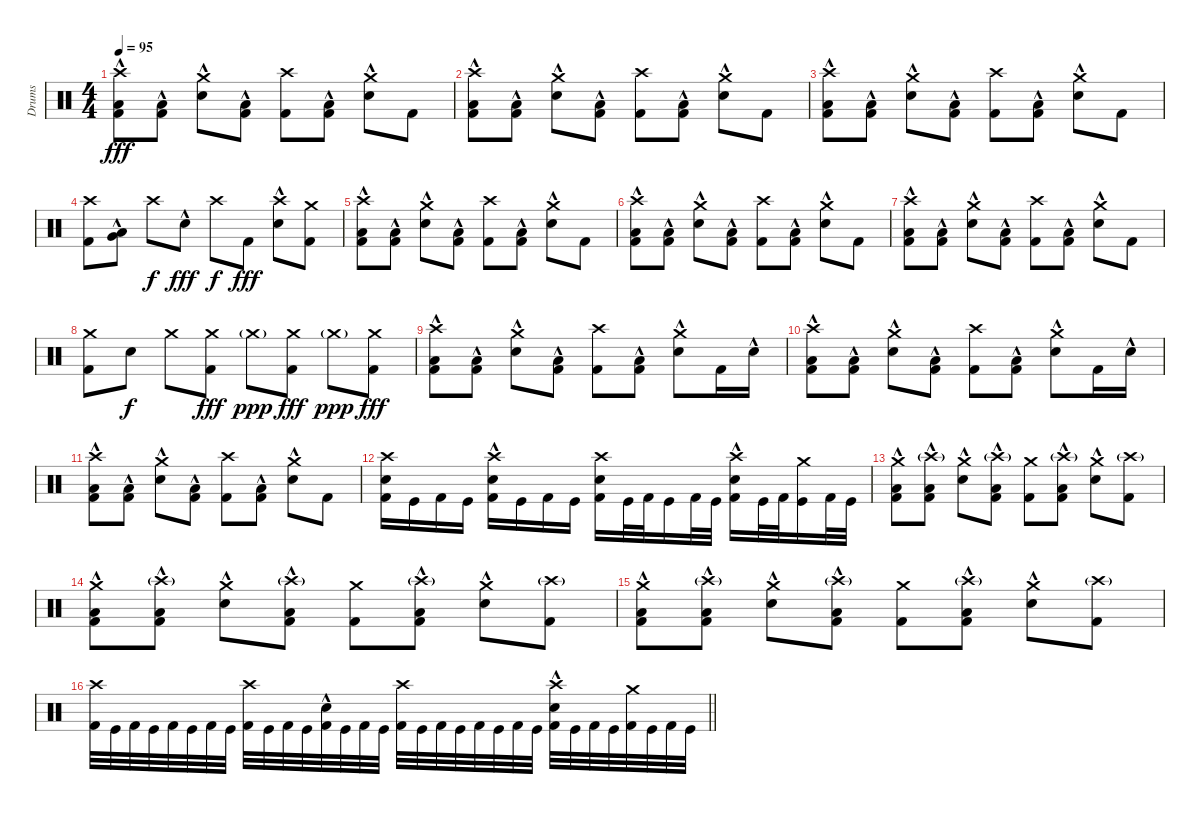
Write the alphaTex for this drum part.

\track ("Drums" "Drums") {instrument percussion}
\staff {score}
\articulation defaults
\ts (4 4)
\tempo 95
\clef neutral
\ks c
("Crash high (hit)" "Low Floor Tom (hit)"{hac} "Kick (hit) 2").8{dy fff} ("Low Floor Tom (hit)"{hac} "Kick (hit) 2").8 ("Crash medium (hit)" "Electric Snare (hit)"{hac}).8 ("Low Floor Tom (hit)"{hac} "Kick (hit) 2").8 ("Crash high (hit)" "Kick (hit) 2").8 ("Low Floor Tom (hit)"{hac} "Kick (hit) 2").8 ("Crash medium (hit)" "Electric Snare (hit)"{hac}).8 "Kick (hit) 2".8 |
("Crash high (hit)" "Low Floor Tom (hit)"{hac} "Kick (hit) 2").8 ("Low Floor Tom (hit)"{hac} "Kick (hit) 2").8 ("Crash medium (hit)" "Electric Snare (hit)"{hac}).8 ("Low Floor Tom (hit)"{hac} "Kick (hit) 2").8 ("Crash high (hit)" "Kick (hit) 2").8 ("Low Floor Tom (hit)"{hac} "Kick (hit) 2").8 ("Crash medium (hit)" "Electric Snare (hit)"{hac}).8 "Kick (hit) 2".8 |
("Crash high (hit)" "Low Floor Tom (hit)"{hac} "Kick (hit) 2").8 ("Low Floor Tom (hit)"{hac} "Kick (hit) 2").8 ("Crash medium (hit)" "Electric Snare (hit)"{hac}).8 ("Low Floor Tom (hit)"{hac} "Kick (hit) 2").8 ("Crash high (hit)" "Kick (hit) 2").8 ("Low Floor Tom (hit)"{hac} "Kick (hit) 2").8 ("Crash medium (hit)" "Electric Snare (hit)"{hac}).8 "Kick (hit) 2".8 |
("Crash high (hit)" "Kick (hit) 2").8 ("Low Tom (hit)"{hac} "Very Low Tom (hit)"{hac}).8 "Crash high (hit)".8{dy f} "Electric Snare (hit)"{hac}.8{dy fff} "Crash high (hit)".8{dy f} "Kick (hit) 2".8{dy fff} ("Crash high (hit)" "Electric Snare (hit)"{hac}).8 ("Crash medium (hit)" "Kick (hit) 2").8 |
("Crash high (hit)" "Low Floor Tom (hit)"{hac} "Kick (hit) 2").8 ("Low Floor Tom (hit)"{hac} "Kick (hit) 2").8 ("Crash medium (hit)" "Electric Snare (hit)"{hac}).8 ("Low Floor Tom (hit)"{hac} "Kick (hit) 2").8 ("Crash high (hit)" "Kick (hit) 2").8 ("Low Floor Tom (hit)"{hac} "Kick (hit) 2").8 ("Crash medium (hit)" "Electric Snare (hit)"{hac}).8 "Kick (hit) 2".8 |
("Crash high (hit)" "Low Floor Tom (hit)"{hac} "Kick (hit) 2").8 ("Low Floor Tom (hit)"{hac} "Kick (hit) 2").8 ("Crash medium (hit)" "Electric Snare (hit)"{hac}).8 ("Low Floor Tom (hit)"{hac} "Kick (hit) 2").8 ("Crash high (hit)" "Kick (hit) 2").8 ("Low Floor Tom (hit)"{hac} "Kick (hit) 2").8 ("Crash medium (hit)" "Electric Snare (hit)"{hac}).8 "Kick (hit) 2".8 |
("Crash high (hit)" "Low Floor Tom (hit)"{hac} "Kick (hit) 2").8 ("Low Floor Tom (hit)"{hac} "Kick (hit) 2").8 ("Crash medium (hit)" "Electric Snare (hit)"{hac}).8 ("Low Floor Tom (hit)"{hac} "Kick (hit) 2").8 ("Crash high (hit)" "Kick (hit) 2").8 ("Low Floor Tom (hit)"{hac} "Kick (hit) 2").8 ("Crash medium (hit)" "Electric Snare (hit)"{hac}).8 "Kick (hit) 2".8 |
("Crash medium (hit)" "Kick (hit) 2").8 "Electric Snare (hit)".8{dy f} "Crash medium (hit)".8 ("Crash medium (hit)" "Kick (hit) 2").8{dy fff} "Crash medium (hit)"{g}.8{dy ppp volume 0} ("Crash medium (hit)" "Kick (hit) 2").8{dy fff volume 10} "Crash medium (hit)"{g}.8{dy ppp volume 0} ("Crash medium (hit)" "Kick (hit) 2").8{dy fff volume 10} |
("Crash high (hit)" "Low Floor Tom (hit)"{hac} "Kick (hit) 2").8 ("Low Floor Tom (hit)"{hac} "Kick (hit) 2").8 ("Crash medium (hit)" "Electric Snare (hit)"{hac}).8 ("Low Floor Tom (hit)"{hac} "Kick (hit) 2").8 ("Crash high (hit)" "Kick (hit) 2").8 ("Low Floor Tom (hit)"{hac} "Kick (hit) 2").8 ("Crash medium (hit)" "Electric Snare (hit)"{hac}).8 "Kick (hit) 2".16 "Electric Snare (hit)"{hac}.16 |
("Crash high (hit)" "Low Floor Tom (hit)"{hac} "Kick (hit) 2").8 ("Low Floor Tom (hit)"{hac} "Kick (hit) 2").8 ("Crash medium (hit)" "Electric Snare (hit)"{hac}).8 ("Low Floor Tom (hit)"{hac} "Kick (hit) 2").8 ("Crash high (hit)" "Kick (hit) 2").8 ("Low Floor Tom (hit)"{hac} "Kick (hit) 2").8 ("Crash medium (hit)" "Electric Snare (hit)"{hac}).8 "Kick (hit) 2".16 "Electric Snare (hit)"{hac}.16 |
("Crash high (hit)" "Low Floor Tom (hit)"{hac} "Kick (hit) 2").8 ("Low Floor Tom (hit)"{hac} "Kick (hit) 2").8 ("Crash medium (hit)" "Electric Snare (hit)"{hac}).8 ("Low Floor Tom (hit)"{hac} "Kick (hit) 2").8 ("Crash high (hit)" "Kick (hit) 2").8 ("Low Floor Tom (hit)"{hac} "Kick (hit) 2").8 ("Crash medium (hit)" "Electric Snare (hit)"{hac}).8 "Kick (hit) 2".8 |
("Crash high (hit)" "Electric Snare (hit)" "Kick (hit) 2").16 "Kick (hit)".16 "Kick (hit) 2".16 "Kick (hit)".16 ("Crash high (hit)" "Electric Snare (hit)"{hac} "Kick (hit) 2").16 "Kick (hit)".16 "Kick (hit) 2".16 "Kick (hit)".16 ("Crash high (hit)" "Electric Snare (hit)" "Kick (hit) 2").16 "Kick (hit)".32 "Kick (hit) 2".32 "Kick (hit)".16 "Kick (hit) 2".32 "Kick (hit)".32 ("Crash high (hit)" "Electric Snare (hit)"{hac} "Kick (hit) 2").16 "Kick (hit)".32 "Kick (hit) 2".32 ("Crash medium (hit)" "Kick (hit)").16 "Kick (hit) 2".32 "Kick (hit)".32 |
("Crash medium (hit)" "Low Floor Tom (hit)"{hac} "Kick (hit) 2").8 ("Crash high (hit)"{g} "Low Floor Tom (hit)"{hac} "Kick (hit) 2").8 ("Crash medium (hit)" "Electric Snare (hit)"{hac}).8 ("Crash high (hit)"{g} "Low Floor Tom (hit)"{hac} "Kick (hit) 2").8 ("Crash medium (hit)" "Kick (hit) 2").8 ("Crash high (hit)"{g} "Low Floor Tom (hit)"{hac} "Kick (hit) 2").8 ("Crash medium (hit)" "Electric Snare (hit)"{hac}).8 ("Crash high (hit)"{g} "Kick (hit) 2").8 |
("Crash medium (hit)" "Low Floor Tom (hit)"{hac} "Kick (hit) 2").8 ("Crash high (hit)"{g} "Low Floor Tom (hit)"{hac} "Kick (hit) 2").8 ("Crash medium (hit)" "Electric Snare (hit)"{hac}).8 ("Crash high (hit)"{g} "Low Floor Tom (hit)"{hac} "Kick (hit) 2").8 ("Crash medium (hit)" "Kick (hit) 2").8 ("Crash high (hit)"{g} "Low Floor Tom (hit)"{hac} "Kick (hit) 2").8 ("Crash medium (hit)" "Electric Snare (hit)"{hac}).8 ("Crash high (hit)"{g} "Kick (hit) 2").8 |
("Crash medium (hit)" "Low Floor Tom (hit)"{hac} "Kick (hit) 2").8 ("Crash high (hit)"{g} "Low Floor Tom (hit)"{hac} "Kick (hit) 2").8 ("Crash medium (hit)" "Electric Snare (hit)"{hac}).8 ("Crash high (hit)"{g} "Low Floor Tom (hit)"{hac} "Kick (hit) 2").8 ("Crash medium (hit)" "Kick (hit) 2").8 ("Crash high (hit)"{g} "Low Floor Tom (hit)"{hac} "Kick (hit) 2").8 ("Crash medium (hit)" "Electric Snare (hit)"{hac}).8 ("Crash high (hit)"{g} "Kick (hit) 2").8 |
\barLineRight lightlight
("Crash high (hit)" "Kick (hit) 2").32 "Kick (hit)".32 "Kick (hit) 2".32 "Kick (hit)".32 "Kick (hit) 2".32 "Kick (hit)".32 "Kick (hit) 2".32 "Kick (hit)".32 ("Crash high (hit)" "Kick (hit) 2").32 "Kick (hit)".32 "Kick (hit) 2".32 "Kick (hit)".32 ("Electric Snare (hit)"{hac} "Kick (hit) 2").32 "Kick (hit)".32 "Kick (hit) 2".32 "Kick (hit)".32 ("Crash high (hit)" "Kick (hit) 2").32 "Kick (hit)".32 "Kick (hit) 2".32 "Kick (hit)".32 "Kick (hit) 2".32 "Kick (hit)".32 "Kick (hit) 2".32 "Kick (hit)".32 ("Crash high (hit)" "Electric Snare (hit)"{hac} "Kick (hit) 2").32 "Kick (hit)".32 "Kick (hit) 2".32 "Kick (hit)".32 ("Crash medium (hit)" "Kick (hit) 2").32 "Kick (hit)".32 "Kick (hit) 2".32 "Kick (hit)".32
